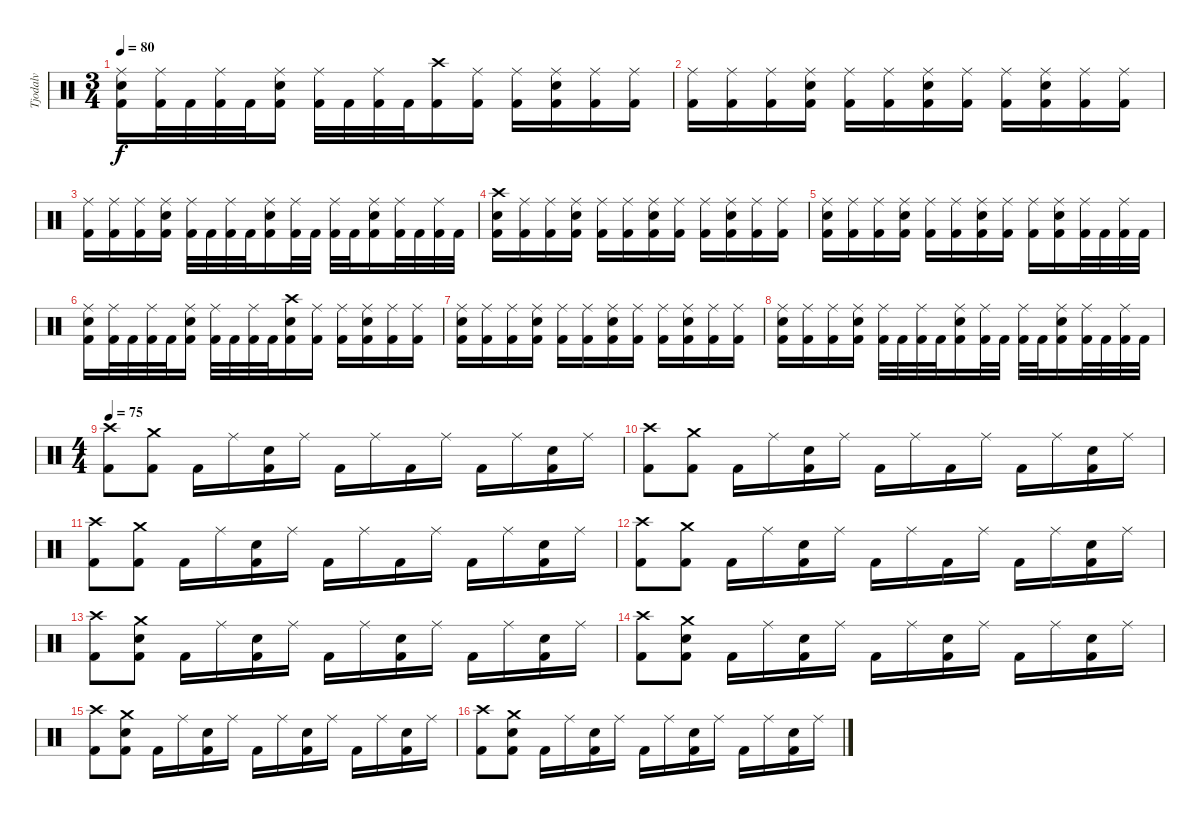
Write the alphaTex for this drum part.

\track ("Tjodalv" "Tjodalv") {instrument percussion}
\staff {score}
\articulation defaults
\ts (3 4)
\tempo 80
\clef neutral
\ks c
("Ride (middle)" "Electric Snare (hit)" "Kick (hit) 2").16{dy f} ("Ride (middle)" "Kick (hit) 2").32 "Kick (hit) 2".32 ("Ride (middle)" "Kick (hit) 2").32 "Kick (hit) 2".32 ("Ride (middle)" "Electric Snare (hit)" "Kick (hit) 2").16 ("Ride (middle)" "Kick (hit) 2").32 "Kick (hit) 2".32 ("Ride (middle)" "Kick (hit) 2").32 "Kick (hit) 2".32 ("Crash high (hit)" "Kick (hit) 2").16 ("Ride (middle)" "Kick (hit) 2").16 ("Ride (middle)" "Kick (hit) 2").16 ("Ride (middle)" "Electric Snare (hit)" "Kick (hit) 2").16 ("Ride (middle)" "Kick (hit) 2").16 ("Ride (middle)" "Kick (hit) 2").16 |
("Ride (middle)" "Kick (hit) 2").16 ("Ride (middle)" "Kick (hit) 2").16 ("Ride (middle)" "Kick (hit) 2").16 ("Ride (middle)" "Electric Snare (hit)" "Kick (hit) 2").16 ("Ride (middle)" "Kick (hit) 2").16 ("Ride (middle)" "Kick (hit) 2").16 ("Ride (middle)" "Electric Snare (hit)" "Kick (hit) 2").16 ("Ride (middle)" "Kick (hit) 2").16 ("Ride (middle)" "Kick (hit) 2").16 ("Ride (middle)" "Electric Snare (hit)" "Kick (hit) 2").16 ("Ride (middle)" "Kick (hit) 2").16 ("Ride (middle)" "Kick (hit) 2").16 |
("Ride (middle)" "Kick (hit) 2").16 ("Ride (middle)" "Kick (hit) 2").16 ("Ride (middle)" "Kick (hit) 2").16 ("Ride (middle)" "Electric Snare (hit)" "Kick (hit) 2").16 ("Ride (middle)" "Kick (hit) 2").32 "Kick (hit) 2".32 ("Ride (middle)" "Kick (hit) 2").32 "Kick (hit) 2".32 ("Ride (middle)" "Electric Snare (hit)" "Kick (hit) 2").16 ("Ride (middle)" "Kick (hit) 2").32 "Kick (hit) 2".32 ("Ride (middle)" "Kick (hit) 2").32 "Kick (hit) 2".32 ("Ride (middle)" "Electric Snare (hit)" "Kick (hit) 2").16 ("Ride (middle)" "Kick (hit) 2").32 "Kick (hit) 2".32 ("Ride (middle)" "Kick (hit) 2").32 "Kick (hit) 2".32 |
("Crash high (hit)" "Electric Snare (hit)" "Kick (hit) 2").16 ("Ride (middle)" "Kick (hit) 2").16 ("Ride (middle)" "Kick (hit) 2").16 ("Ride (middle)" "Electric Snare (hit)" "Kick (hit) 2").16 ("Ride (middle)" "Kick (hit) 2").16 ("Ride (middle)" "Kick (hit) 2").16 ("Ride (middle)" "Electric Snare (hit)" "Kick (hit) 2").16 ("Ride (middle)" "Kick (hit) 2").16 ("Ride (middle)" "Kick (hit) 2").16 ("Ride (middle)" "Electric Snare (hit)" "Kick (hit) 2").16 ("Ride (middle)" "Kick (hit) 2").16 ("Ride (middle)" "Kick (hit) 2").16 |
("Ride (middle)" "Electric Snare (hit)" "Kick (hit) 2").16 ("Ride (middle)" "Kick (hit) 2").16 ("Ride (middle)" "Kick (hit) 2").16 ("Ride (middle)" "Electric Snare (hit)" "Kick (hit) 2").16 ("Ride (middle)" "Kick (hit) 2").16 ("Ride (middle)" "Kick (hit) 2").16 ("Ride (middle)" "Electric Snare (hit)" "Kick (hit) 2").16 ("Ride (middle)" "Kick (hit) 2").16 ("Ride (middle)" "Kick (hit) 2").16 ("Ride (middle)" "Electric Snare (hit)" "Kick (hit) 2").16 ("Ride (middle)" "Kick (hit) 2").32 "Kick (hit) 2".32 ("Ride (middle)" "Kick (hit) 2").32 "Kick (hit) 2".32 |
("Ride (middle)" "Electric Snare (hit)" "Kick (hit) 2").16 ("Ride (middle)" "Kick (hit) 2").32 "Kick (hit) 2".32 ("Ride (middle)" "Kick (hit) 2").32 "Kick (hit) 2".32 ("Ride (middle)" "Electric Snare (hit)" "Kick (hit) 2").16 ("Ride (middle)" "Kick (hit) 2").32 "Kick (hit) 2".32 ("Ride (middle)" "Kick (hit) 2").32 "Kick (hit) 2".32 ("Crash high (hit)" "Electric Snare (hit)" "Kick (hit) 2").16 ("Ride (middle)" "Kick (hit) 2").16 ("Ride (middle)" "Kick (hit) 2").16 ("Ride (middle)" "Electric Snare (hit)" "Kick (hit) 2").16 ("Ride (middle)" "Kick (hit) 2").16 ("Ride (middle)" "Kick (hit) 2").16 |
("Ride (middle)" "Electric Snare (hit)" "Kick (hit) 2").16 ("Ride (middle)" "Kick (hit) 2").16 ("Ride (middle)" "Kick (hit) 2").16 ("Ride (middle)" "Electric Snare (hit)" "Kick (hit) 2").16 ("Ride (middle)" "Kick (hit) 2").16 ("Ride (middle)" "Kick (hit) 2").16 ("Ride (middle)" "Electric Snare (hit)" "Kick (hit) 2").16 ("Ride (middle)" "Kick (hit) 2").16 ("Ride (middle)" "Kick (hit) 2").16 ("Ride (middle)" "Electric Snare (hit)" "Kick (hit) 2").16 ("Ride (middle)" "Kick (hit) 2").16 ("Ride (middle)" "Kick (hit) 2").16 |
("Ride (middle)" "Electric Snare (hit)" "Kick (hit) 2").16 ("Ride (middle)" "Kick (hit) 2").16 ("Ride (middle)" "Kick (hit) 2").16 ("Ride (middle)" "Electric Snare (hit)" "Kick (hit) 2").16 ("Ride (middle)" "Kick (hit) 2").32 "Kick (hit) 2".32 ("Ride (middle)" "Kick (hit) 2").32 "Kick (hit) 2".32 ("Ride (middle)" "Electric Snare (hit)" "Kick (hit) 2").16 ("Ride (middle)" "Kick (hit) 2").32 "Kick (hit) 2".32 ("Ride (middle)" "Kick (hit) 2").32 "Kick (hit) 2".32 ("Ride (middle)" "Electric Snare (hit)" "Kick (hit) 2").16 ("Ride (middle)" "Kick (hit) 2").32 "Kick (hit) 2".32 ("Ride (middle)" "Kick (hit) 2").32 "Kick (hit) 2".32 |
\ts (4 4)
\tempo 75
("Crash high (hit)" "Kick (hit) 2").8 ("Crash medium (hit)" "Kick (hit) 2").8 "Kick (hit) 2".16 "Ride (middle)".16 ("Electric Snare (hit)" "Kick (hit) 2").16 "Ride (middle)".16 "Kick (hit) 2".16 "Ride (middle)".16 "Kick (hit) 2".16 "Ride (middle)".16 "Kick (hit) 2".16 "Ride (middle)".16 ("Electric Snare (hit)" "Kick (hit) 2").16 "Ride (middle)".16 |
("Crash high (hit)" "Kick (hit) 2").8 ("Crash medium (hit)" "Kick (hit) 2").8 "Kick (hit) 2".16 "Ride (middle)".16 ("Electric Snare (hit)" "Kick (hit) 2").16 "Ride (middle)".16 "Kick (hit) 2".16 "Ride (middle)".16 "Kick (hit) 2".16 "Ride (middle)".16 "Kick (hit) 2".16 "Ride (middle)".16 ("Electric Snare (hit)" "Kick (hit) 2").16 "Ride (middle)".16 |
("Crash high (hit)" "Kick (hit) 2").8 ("Crash medium (hit)" "Kick (hit) 2").8 "Kick (hit) 2".16 "Ride (middle)".16 ("Electric Snare (hit)" "Kick (hit) 2").16 "Ride (middle)".16 "Kick (hit) 2".16 "Ride (middle)".16 "Kick (hit) 2".16 "Ride (middle)".16 "Kick (hit) 2".16 "Ride (middle)".16 ("Electric Snare (hit)" "Kick (hit) 2").16 "Ride (middle)".16 |
("Crash high (hit)" "Kick (hit) 2").8 ("Crash medium (hit)" "Kick (hit) 2").8 "Kick (hit) 2".16 "Ride (middle)".16 ("Electric Snare (hit)" "Kick (hit) 2").16 "Ride (middle)".16 "Kick (hit) 2".16 "Ride (middle)".16 "Kick (hit) 2".16 "Ride (middle)".16 "Kick (hit) 2".16 "Ride (middle)".16 ("Electric Snare (hit)" "Kick (hit) 2").16 "Ride (middle)".16 |
("Crash high (hit)" "Kick (hit) 2").8 ("Crash medium (hit)" "Electric Snare (hit)" "Kick (hit) 2").8 "Kick (hit) 2".16 "Ride (middle)".16 ("Electric Snare (hit)" "Kick (hit) 2").16 "Ride (middle)".16 "Kick (hit) 2".16 "Ride (middle)".16 ("Electric Snare (hit)" "Kick (hit) 2").16 "Ride (middle)".16 "Kick (hit) 2".16 "Ride (middle)".16 ("Electric Snare (hit)" "Kick (hit) 2").16 "Ride (middle)".16 |
("Crash high (hit)" "Kick (hit) 2").8 ("Crash medium (hit)" "Electric Snare (hit)" "Kick (hit) 2").8 "Kick (hit) 2".16 "Ride (middle)".16 ("Electric Snare (hit)" "Kick (hit) 2").16 "Ride (middle)".16 "Kick (hit) 2".16 "Ride (middle)".16 ("Electric Snare (hit)" "Kick (hit) 2").16 "Ride (middle)".16 "Kick (hit) 2".16 "Ride (middle)".16 ("Electric Snare (hit)" "Kick (hit) 2").16 "Ride (middle)".16 |
("Crash high (hit)" "Kick (hit) 2").8 ("Crash medium (hit)" "Electric Snare (hit)" "Kick (hit) 2").8 "Kick (hit) 2".16 "Ride (middle)".16 ("Electric Snare (hit)" "Kick (hit) 2").16 "Ride (middle)".16 "Kick (hit) 2".16 "Ride (middle)".16 ("Electric Snare (hit)" "Kick (hit) 2").16 "Ride (middle)".16 "Kick (hit) 2".16 "Ride (middle)".16 ("Electric Snare (hit)" "Kick (hit) 2").16 "Ride (middle)".16 |
("Crash high (hit)" "Kick (hit) 2").8 ("Crash medium (hit)" "Electric Snare (hit)" "Kick (hit) 2").8 "Kick (hit) 2".16 "Ride (middle)".16 ("Electric Snare (hit)" "Kick (hit) 2").16 "Ride (middle)".16 "Kick (hit) 2".16 "Ride (middle)".16 ("Electric Snare (hit)" "Kick (hit) 2").16 "Ride (middle)".16 "Kick (hit) 2".16 "Ride (middle)".16 ("Electric Snare (hit)" "Kick (hit) 2").16 "Ride (middle)".16
